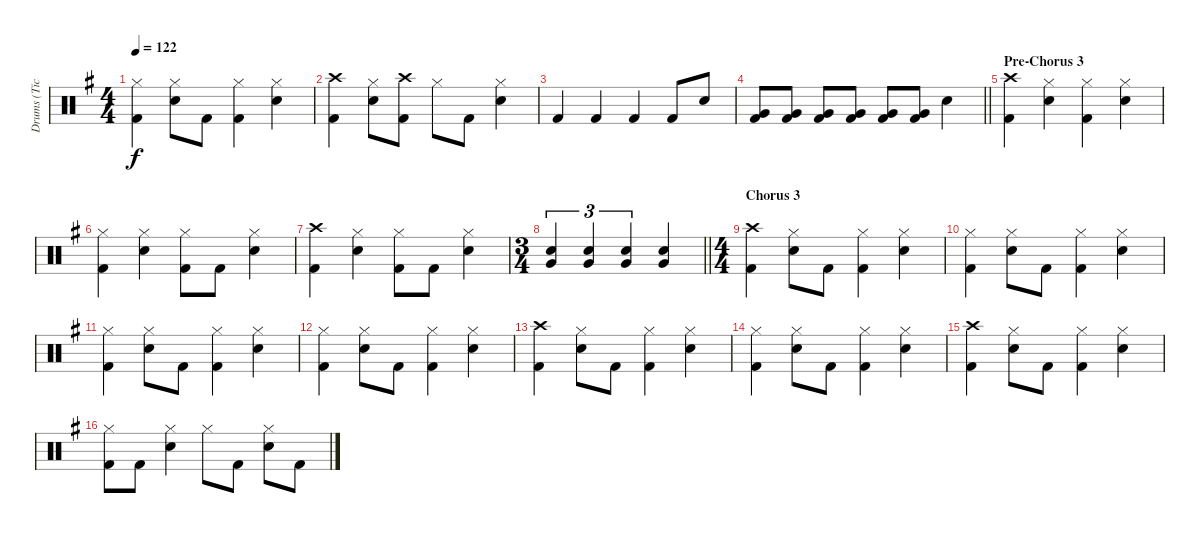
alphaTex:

\track ("Drums (Tico Torres)" "Drums (Tic") {instrument percussion}
\staff {score}
\articulation defaults
\ts (4 4)
\tempo 122
\clef neutral
\ks eminor
("Hi-Hat (closed)" "Kick (hit) 2").4{dy f} ("Hi-Hat (closed)" "Snare (hit) 2").8 "Kick (hit) 2".8 ("Hi-Hat (closed)" "Kick (hit) 2").4 ("Hi-Hat (closed)" "Snare (hit) 2").4 |
("Crash high (hit)" "Kick (hit) 2").4 ("Hi-Hat (closed)" "Snare (hit) 2").8 ("Crash high (hit)" "Kick (hit) 2").8 "Hi-Hat (closed)".8 "Kick (hit) 2".8 ("Hi-Hat (closed)" "Snare (hit) 2").4 |
"Kick (hit) 2".4 "Kick (hit) 2".4 "Kick (hit) 2".4 "Kick (hit) 2".8 "Snare (hit) 2".8 |
\barLineRight lightlight
("Very Low Tom (hit)" "Kick (hit) 2").8 ("Very Low Tom (hit)" "Kick (hit) 2").8 ("Very Low Tom (hit)" "Kick (hit) 2").8 ("Very Low Tom (hit)" "Kick (hit) 2").8 ("Very Low Tom (hit)" "Kick (hit) 2").8 ("Very Low Tom (hit)" "Kick (hit) 2").8 "Snare (hit) 2".4 |
\section ("" "Pre-Chorus 3")
("Crash high (hit)" "Kick (hit) 2").4 ("Hi-Hat (closed)" "Snare (hit) 2").4 ("Hi-Hat (closed)" "Kick (hit) 2").4 ("Hi-Hat (closed)" "Snare (hit) 2").4 |
("Hi-Hat (closed)" "Kick (hit) 2").4 ("Hi-Hat (closed)" "Snare (hit) 2").4 ("Hi-Hat (closed)" "Kick (hit) 2").8 "Kick (hit) 2".8 ("Hi-Hat (closed)" "Snare (hit) 2").4 |
("Crash high (hit)" "Kick (hit) 2").4 ("Hi-Hat (closed)" "Snare (hit) 2").4 ("Hi-Hat (closed)" "Kick (hit) 2").8 "Kick (hit) 2".8 ("Hi-Hat (closed)" "Snare (hit) 2").4 |
\ts (3 4)
\barLineRight lightlight
("Snare (hit) 2" "Very Low Tom (hit)").4{tu (3 2)} ("Snare (hit) 2" "Very Low Tom (hit)").4{tu (3 2)} ("Snare (hit) 2" "Very Low Tom (hit)").4{tu (3 2)} ("Snare (hit) 2" "Very Low Tom (hit)").4 |
\ts (4 4)
\section ("" "Chorus 3")
("Crash high (hit)" "Kick (hit) 2").4 ("Hi-Hat (closed)" "Snare (hit) 2").8 "Kick (hit) 2".8 ("Hi-Hat (closed)" "Kick (hit) 2").4 ("Hi-Hat (closed)" "Snare (hit) 2").4 |
("Hi-Hat (closed)" "Kick (hit) 2").4 ("Hi-Hat (closed)" "Snare (hit) 2").8 "Kick (hit) 2".8 ("Hi-Hat (closed)" "Kick (hit) 2").4 ("Hi-Hat (closed)" "Snare (hit) 2").4 |
("Hi-Hat (closed)" "Kick (hit) 2").4 ("Hi-Hat (closed)" "Snare (hit) 2").8 "Kick (hit) 2".8 ("Hi-Hat (closed)" "Kick (hit) 2").4 ("Hi-Hat (closed)" "Snare (hit) 2").4 |
("Hi-Hat (closed)" "Kick (hit) 2").4 ("Hi-Hat (closed)" "Snare (hit) 2").8 "Kick (hit) 2".8 ("Hi-Hat (closed)" "Kick (hit) 2").4 ("Hi-Hat (closed)" "Snare (hit) 2").4 |
("Crash high (hit)" "Kick (hit) 2").4 ("Hi-Hat (closed)" "Snare (hit) 2").8 "Kick (hit) 2".8 ("Hi-Hat (closed)" "Kick (hit) 2").4 ("Hi-Hat (closed)" "Snare (hit) 2").4 |
("Hi-Hat (closed)" "Kick (hit) 2").4 ("Hi-Hat (closed)" "Snare (hit) 2").8 "Kick (hit) 2".8 ("Hi-Hat (closed)" "Kick (hit) 2").4 ("Hi-Hat (closed)" "Snare (hit) 2").4 |
("Crash high (hit)" "Kick (hit) 2").4 ("Hi-Hat (closed)" "Snare (hit) 2").8 "Kick (hit) 2".8 ("Hi-Hat (closed)" "Kick (hit) 2").4 ("Hi-Hat (closed)" "Snare (hit) 2").4 |
("Hi-Hat (closed)" "Kick (hit) 2").8 "Kick (hit) 2".8 ("Hi-Hat (closed)" "Snare (hit) 2").4 "Hi-Hat (closed)".8 "Kick (hit) 2".8 ("Hi-Hat (closed)" "Snare (hit) 2").8 "Kick (hit) 2".8
